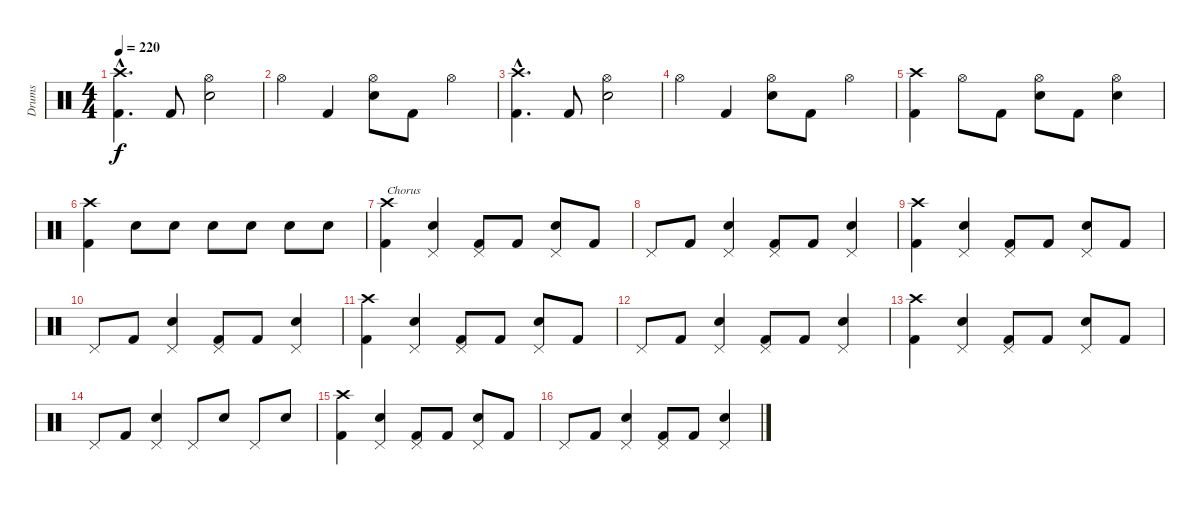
\track ("Drums" "Drums") {instrument percussion}
\staff {score}
\articulation defaults
\ts (4 4)
\tempo 220
\clef neutral
\ks c
("Crash high (hit)"{hac} "Kick (hit) 2"{hac}).4{d dy f} "Kick (hit) 2".8 ("Hi-Hat (open)" "Snare (hit) 2").2 |
"Hi-Hat (open)".4 "Kick (hit) 2".4 ("Hi-Hat (open)" "Snare (hit) 2").8 "Kick (hit) 2".8 "Hi-Hat (open)".4 |
("Crash high (hit)"{hac} "Kick (hit) 2"{hac}).4{d} "Kick (hit) 2".8 ("Hi-Hat (open)" "Snare (hit) 2").2 |
"Hi-Hat (open)".4 "Kick (hit) 2".4 ("Hi-Hat (open)" "Snare (hit) 2").8 "Kick (hit) 2".8 "Hi-Hat (open)".4 |
("Crash high (hit)" "Kick (hit) 2").4 "Hi-Hat (open)".8 "Kick (hit) 2".8 ("Hi-Hat (open)" "Snare (hit) 2").8 "Kick (hit) 2".8 ("Hi-Hat (open)" "Snare (hit) 2").4 |
("Crash high (hit)" "Kick (hit) 2").4 "Snare (hit) 2".8 "Snare (hit) 2".8 "Snare (hit) 2".8 "Snare (hit) 2".8 "Snare (hit) 2".8 "Snare (hit) 2".8 |
("Crash high (hit)" "Kick (hit) 2").4{txt "Chorus"} ("Pedal Hi-Hat (hit)" "Snare (hit) 2").4 ("Pedal Hi-Hat (hit)" "Kick (hit) 2").8 "Kick (hit) 2".8 ("Pedal Hi-Hat (hit)" "Snare (hit) 2").8 "Kick (hit) 2".8 |
"Pedal Hi-Hat (hit)".8 "Kick (hit) 2".8 ("Pedal Hi-Hat (hit)" "Snare (hit) 2").4 ("Pedal Hi-Hat (hit)" "Kick (hit) 2").8 "Kick (hit) 2".8 ("Pedal Hi-Hat (hit)" "Snare (hit) 2").4 |
("Crash high (hit)" "Kick (hit) 2").4 ("Pedal Hi-Hat (hit)" "Snare (hit) 2").4 ("Pedal Hi-Hat (hit)" "Kick (hit) 2").8 "Kick (hit) 2".8 ("Pedal Hi-Hat (hit)" "Snare (hit) 2").8 "Kick (hit) 2".8 |
"Pedal Hi-Hat (hit)".8 "Kick (hit) 2".8 ("Pedal Hi-Hat (hit)" "Snare (hit) 2").4 ("Pedal Hi-Hat (hit)" "Kick (hit) 2").8 "Kick (hit) 2".8 ("Pedal Hi-Hat (hit)" "Snare (hit) 2").4 |
("Crash high (hit)" "Kick (hit) 2").4 ("Pedal Hi-Hat (hit)" "Snare (hit) 2").4 ("Pedal Hi-Hat (hit)" "Kick (hit) 2").8 "Kick (hit) 2".8 ("Pedal Hi-Hat (hit)" "Snare (hit) 2").8 "Kick (hit) 2".8 |
"Pedal Hi-Hat (hit)".8 "Kick (hit) 2".8 ("Pedal Hi-Hat (hit)" "Snare (hit) 2").4 ("Pedal Hi-Hat (hit)" "Kick (hit) 2").8 "Kick (hit) 2".8 ("Pedal Hi-Hat (hit)" "Snare (hit) 2").4 |
("Crash high (hit)" "Kick (hit) 2").4 ("Pedal Hi-Hat (hit)" "Snare (hit) 2").4 ("Pedal Hi-Hat (hit)" "Kick (hit) 2").8 "Kick (hit) 2".8 ("Pedal Hi-Hat (hit)" "Snare (hit) 2").8 "Kick (hit) 2".8 |
"Pedal Hi-Hat (hit)".8 "Kick (hit) 2".8 ("Pedal Hi-Hat (hit)" "Snare (hit) 2").4 "Pedal Hi-Hat (hit)".8 "Snare (hit) 2".8 "Pedal Hi-Hat (hit)".8 "Snare (hit) 2".8 |
("Crash high (hit)" "Kick (hit) 2").4 ("Pedal Hi-Hat (hit)" "Snare (hit) 2").4 ("Pedal Hi-Hat (hit)" "Kick (hit) 2").8 "Kick (hit) 2".8 ("Pedal Hi-Hat (hit)" "Snare (hit) 2").8 "Kick (hit) 2".8 |
"Pedal Hi-Hat (hit)".8 "Kick (hit) 2".8 ("Pedal Hi-Hat (hit)" "Snare (hit) 2").4 ("Pedal Hi-Hat (hit)" "Kick (hit) 2").8 "Kick (hit) 2".8 ("Pedal Hi-Hat (hit)" "Snare (hit) 2").4
